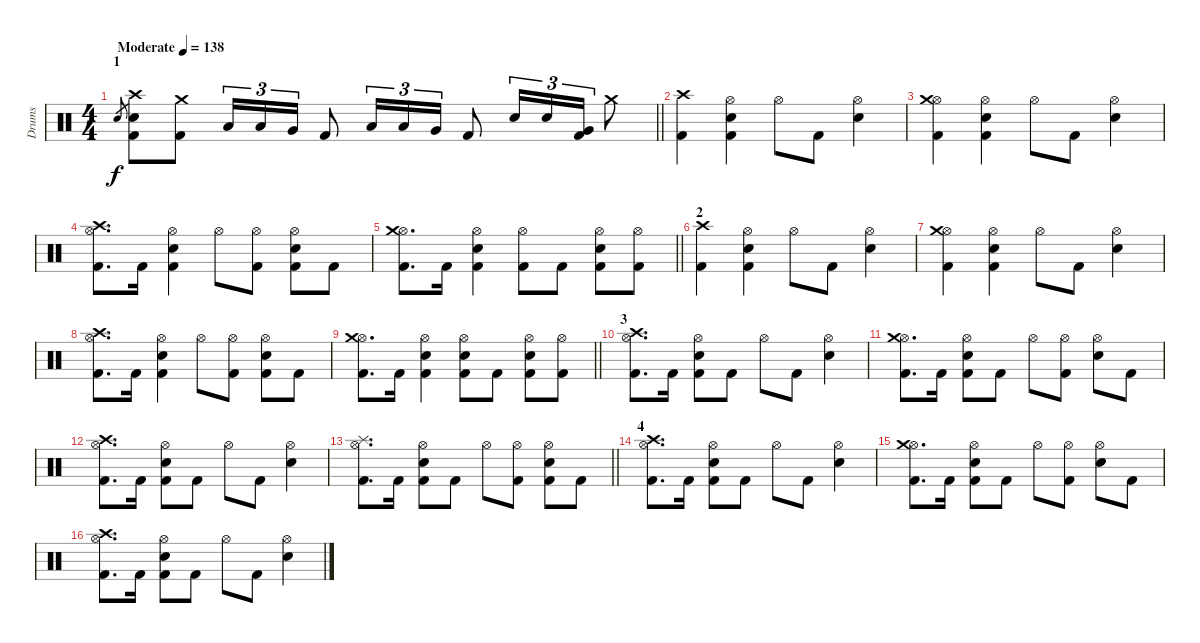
\track ("Drums" "Drums") {instrument percussion}
\staff {score}
\articulation defaults
\ts (4 4)
\section ("" "1")
\tempo (138 "Moderate")
\clef neutral
\barLineRight lightlight
\ks c "Snare (hit) 2".8{gr dy f}
("Snare (hit) 2" "Crash high (hit)" "Kick (hit) 2").8 ("Crash medium (hit)" "Kick (hit) 2").8 "Low Tom (hit)".16{tu (3 2)} "Low Tom (hit)".16{tu (3 2)} "Very Low Tom (hit)".16{tu (3 2)} "Kick (hit) 2".8 "Low Tom (hit)".16{tu (3 2)} "Low Tom (hit)".16{tu (3 2)} "Very Low Tom (hit)".16{tu (3 2)} "Kick (hit) 2".8 "Snare (hit) 2".16{tu (3 2)} "Snare (hit) 2".16{tu (3 2)} ("Very Low Tom (hit)" "Kick (hit) 2").16{tu (3 2)} "Crash medium (hit)".8 |
("Crash high (hit)" "Kick (hit) 2").4 ("Hi-Hat (open)" "Snare (hit) 2" "Kick (hit) 2").4 "Hi-Hat (open)".8 "Kick (hit) 2".8 ("Hi-Hat (open)" "Snare (hit) 2").4 |
("Hi-Hat (open)" "Crash medium (hit)" "Kick (hit) 2").4 ("Hi-Hat (open)" "Snare (hit) 2" "Kick (hit) 2").4 "Hi-Hat (open)".8 "Kick (hit) 2".8 ("Hi-Hat (open)" "Snare (hit) 2").4 |
("Hi-Hat (open)" "Crash high (hit)" "Kick (hit) 2").8{d} "Kick (hit) 2".16 ("Hi-Hat (open)" "Snare (hit) 2" "Kick (hit) 2").4 "Hi-Hat (open)".8 ("Hi-Hat (open)" "Kick (hit) 2").8 ("Hi-Hat (open)" "Snare (hit) 2" "Kick (hit) 2").8 "Kick (hit) 2".8 |
\barLineRight lightlight
("Hi-Hat (open)" "Crash medium (hit)" "Kick (hit) 2").8{d} "Kick (hit) 2".16 ("Hi-Hat (open)" "Snare (hit) 2" "Kick (hit) 2").4 ("Hi-Hat (open)" "Kick (hit) 2").8 "Kick (hit) 2".8 ("Hi-Hat (open)" "Snare (hit) 2" "Kick (hit) 2").8 ("Hi-Hat (open)" "Kick (hit) 2").8 |
\section ("" "2")
("Crash high (hit)" "Kick (hit) 2").4 ("Hi-Hat (open)" "Snare (hit) 2" "Kick (hit) 2").4 "Hi-Hat (open)".8 "Kick (hit) 2".8 ("Hi-Hat (open)" "Snare (hit) 2").4 |
("Hi-Hat (open)" "Crash medium (hit)" "Kick (hit) 2").4 ("Hi-Hat (open)" "Snare (hit) 2" "Kick (hit) 2").4 "Hi-Hat (open)".8 "Kick (hit) 2".8 ("Hi-Hat (open)" "Snare (hit) 2").4 |
("Hi-Hat (open)" "Crash high (hit)" "Kick (hit) 2").8{d} "Kick (hit) 2".16 ("Hi-Hat (open)" "Snare (hit) 2" "Kick (hit) 2").4 "Hi-Hat (open)".8 ("Hi-Hat (open)" "Kick (hit) 2").8 ("Hi-Hat (open)" "Snare (hit) 2" "Kick (hit) 2").8 "Kick (hit) 2".8 |
\barLineRight lightlight
("Hi-Hat (open)" "Crash medium (hit)" "Kick (hit) 2").8{d} "Kick (hit) 2".16 ("Hi-Hat (open)" "Snare (hit) 2" "Kick (hit) 2").4 ("Hi-Hat (open)" "Snare (hit) 2" "Kick (hit) 2").8 "Kick (hit) 2".8 ("Hi-Hat (open)" "Snare (hit) 2" "Kick (hit) 2").8 ("Hi-Hat (open)" "Kick (hit) 2").8 |
\section ("" "3")
("Hi-Hat (open)" "Crash high (hit)" "Kick (hit) 2").8{d} "Kick (hit) 2".16 ("Hi-Hat (open)" "Snare (hit) 2" "Kick (hit) 2").8 "Kick (hit) 2".8 "Hi-Hat (open)".8 "Kick (hit) 2".8 ("Hi-Hat (open)" "Snare (hit) 2").4 |
("Hi-Hat (open)" "Crash medium (hit)" "Kick (hit) 2").8{d} "Kick (hit) 2".16 ("Hi-Hat (open)" "Snare (hit) 2" "Kick (hit) 2").8 "Kick (hit) 2".8 "Hi-Hat (open)".8 ("Hi-Hat (open)" "Kick (hit) 2").8 ("Hi-Hat (open)" "Snare (hit) 2").8 "Kick (hit) 2".8 |
("Hi-Hat (open)" "Crash high (hit)" "Kick (hit) 2").8{d} "Kick (hit) 2".16 ("Hi-Hat (open)" "Snare (hit) 2" "Kick (hit) 2").8 "Kick (hit) 2".8 "Hi-Hat (open)".8 "Kick (hit) 2".8 ("Hi-Hat (open)" "Snare (hit) 2").4 |
\barLineRight lightlight
("Hi-Hat (open)" "Splash (hit)" "Kick (hit) 2").8{d} "Kick (hit) 2".16 ("Hi-Hat (open)" "Snare (hit) 2" "Kick (hit) 2").8 "Kick (hit) 2".8 "Hi-Hat (open)".8 ("Hi-Hat (open)" "Kick (hit) 2").8 ("Hi-Hat (open)" "Snare (hit) 2" "Kick (hit) 2").8 "Kick (hit) 2".8 |
\section ("" "4")
("Hi-Hat (open)" "Crash high (hit)" "Kick (hit) 2").8{d} "Kick (hit) 2".16 ("Hi-Hat (open)" "Snare (hit) 2" "Kick (hit) 2").8 "Kick (hit) 2".8 "Hi-Hat (open)".8 "Kick (hit) 2".8 ("Hi-Hat (open)" "Snare (hit) 2").4 |
("Hi-Hat (open)" "Crash medium (hit)" "Kick (hit) 2").8{d} "Kick (hit) 2".16 ("Hi-Hat (open)" "Snare (hit) 2" "Kick (hit) 2").8 "Kick (hit) 2".8 "Hi-Hat (open)".8 ("Hi-Hat (open)" "Kick (hit) 2").8 ("Hi-Hat (open)" "Snare (hit) 2").8 "Kick (hit) 2".8 |
("Hi-Hat (open)" "Crash high (hit)" "Kick (hit) 2").8{d} "Kick (hit) 2".16 ("Hi-Hat (open)" "Snare (hit) 2" "Kick (hit) 2").8 "Kick (hit) 2".8 "Hi-Hat (open)".8 "Kick (hit) 2".8 ("Hi-Hat (open)" "Snare (hit) 2").4
